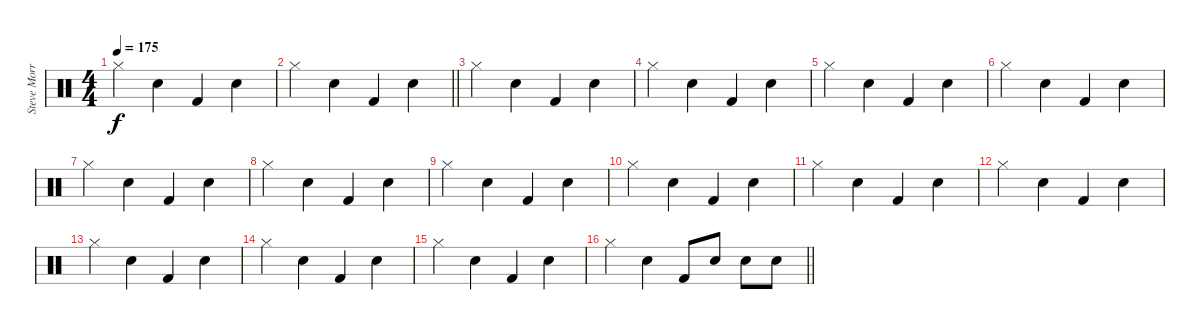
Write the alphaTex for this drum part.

\track ("Steve Morris" "Steve Morr") {instrument percussion}
\staff {score}
\articulation defaults
\ts (4 4)
\tempo 175
\clef neutral
\ks c "Hi-Hat (closed)".4{dy f} "Snare (hit) 2".4 "Kick (hit) 2".4 "Snare (hit) 2".4
|
\barLineRight lightlight "Hi-Hat (closed)".4 "Snare (hit) 2".4 "Kick (hit) 2".4 "Snare (hit) 2".4
|
"Hi-Hat (closed)".4 "Snare (hit) 2".4 "Kick (hit) 2".4 "Snare (hit) 2".4 |
"Hi-Hat (closed)".4 "Snare (hit) 2".4 "Kick (hit) 2".4 "Snare (hit) 2".4 |
"Hi-Hat (closed)".4 "Snare (hit) 2".4 "Kick (hit) 2".4 "Snare (hit) 2".4 |
"Hi-Hat (closed)".4 "Snare (hit) 2".4 "Kick (hit) 2".4 "Snare (hit) 2".4 |
"Hi-Hat (closed)".4 "Snare (hit) 2".4 "Kick (hit) 2".4 "Snare (hit) 2".4 |
"Hi-Hat (closed)".4 "Snare (hit) 2".4 "Kick (hit) 2".4 "Snare (hit) 2".4 |
"Hi-Hat (closed)".4 "Snare (hit) 2".4 "Kick (hit) 2".4 "Snare (hit) 2".4 |
"Hi-Hat (closed)".4 "Snare (hit) 2".4 "Kick (hit) 2".4 "Snare (hit) 2".4 |
"Hi-Hat (closed)".4 "Snare (hit) 2".4 "Kick (hit) 2".4 "Snare (hit) 2".4 |
"Hi-Hat (closed)".4 "Snare (hit) 2".4 "Kick (hit) 2".4 "Snare (hit) 2".4 |
"Hi-Hat (closed)".4 "Snare (hit) 2".4 "Kick (hit) 2".4 "Snare (hit) 2".4 |
"Hi-Hat (closed)".4 "Snare (hit) 2".4 "Kick (hit) 2".4 "Snare (hit) 2".4 |
"Hi-Hat (closed)".4 "Snare (hit) 2".4 "Kick (hit) 2".4 "Snare (hit) 2".4 |
\barLineRight lightlight "Hi-Hat (closed)".4 "Snare (hit) 2".4 "Kick (hit) 2".8 "Snare (hit) 2".8 "Snare (hit) 2".8 "Snare (hit) 2".8
